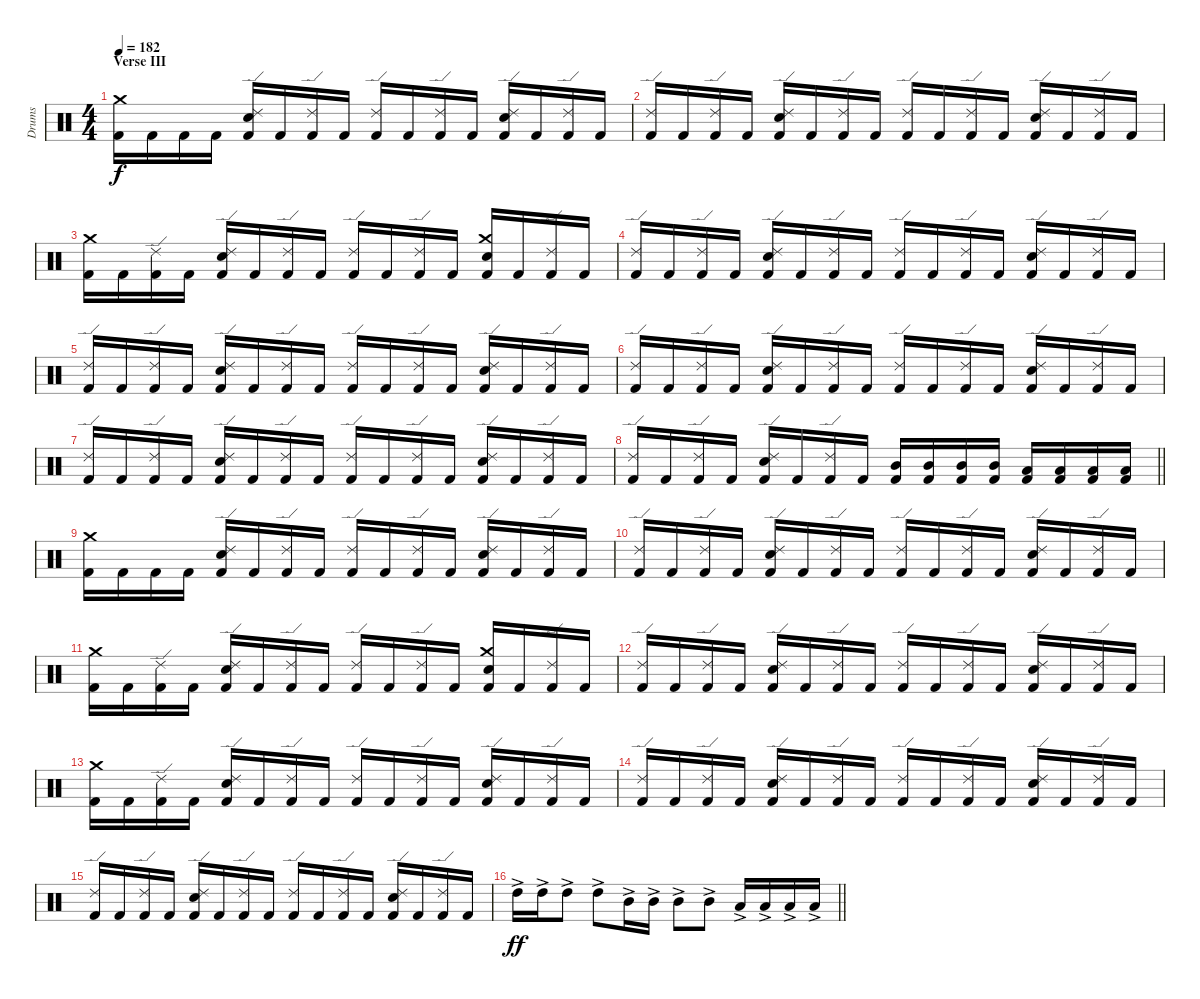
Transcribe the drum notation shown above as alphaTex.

\track ("Drums" "Drums") {instrument percussion}
\staff {score}
\articulation defaults
\ts (4 4)
\section ("" "Verse III")
\tempo 182
\clef neutral
\ks c
("Kick (hit) 2" "Crash medium (hit)").16{dy f} "Kick (hit) 2".16 "Kick (hit) 2".16 "Kick (hit) 2".16 ("Kick (hit) 2" "Snare (hit) 2" "Ride (edge) 2").16 "Kick (hit) 2".16 ("Kick (hit) 2" "Ride (edge) 2").16 "Kick (hit) 2".16 ("Kick (hit) 2" "Ride (edge) 2").16 "Kick (hit) 2".16 ("Kick (hit) 2" "Ride (edge) 2").16 "Kick (hit) 2".16 ("Kick (hit) 2" "Snare (hit) 2" "Ride (edge) 2").16 "Kick (hit) 2".16 ("Kick (hit) 2" "Ride (edge) 2").16 "Kick (hit) 2".16 |
("Kick (hit) 2" "Ride (edge) 2").16 "Kick (hit) 2".16 ("Kick (hit) 2" "Ride (edge) 2").16 "Kick (hit) 2".16 ("Kick (hit) 2" "Snare (hit) 2" "Ride (edge) 2").16 "Kick (hit) 2".16 ("Kick (hit) 2" "Ride (edge) 2").16 "Kick (hit) 2".16 ("Kick (hit) 2" "Ride (edge) 2").16 "Kick (hit) 2".16 ("Kick (hit) 2" "Ride (edge) 2").16 "Kick (hit) 2".16 ("Kick (hit) 2" "Snare (hit) 2" "Ride (edge) 2").16 "Kick (hit) 2".16 ("Kick (hit) 2" "Ride (edge) 2").16 "Kick (hit) 2".16 |
("Kick (hit) 2" "Crash medium (hit)").16 "Kick (hit) 2".16 ("Kick (hit) 2" "Ride (edge) 2").16 "Kick (hit) 2".16 ("Kick (hit) 2" "Snare (hit) 2" "Ride (edge) 2").16 "Kick (hit) 2".16 ("Kick (hit) 2" "Ride (edge) 2").16 "Kick (hit) 2".16 ("Kick (hit) 2" "Ride (edge) 2").16 "Kick (hit) 2".16 ("Kick (hit) 2" "Ride (edge) 2").16 "Kick (hit) 2".16 ("Kick (hit) 2" "Snare (hit) 2" "Crash medium (hit)").16 "Kick (hit) 2".16 ("Kick (hit) 2" "Ride (edge) 2").16 "Kick (hit) 2".16 |
("Kick (hit) 2" "Ride (edge) 2").16 "Kick (hit) 2".16 ("Kick (hit) 2" "Ride (edge) 2").16 "Kick (hit) 2".16 ("Kick (hit) 2" "Snare (hit) 2" "Ride (edge) 2").16 "Kick (hit) 2".16 ("Kick (hit) 2" "Ride (edge) 2").16 "Kick (hit) 2".16 ("Kick (hit) 2" "Ride (edge) 2").16 "Kick (hit) 2".16 ("Kick (hit) 2" "Ride (edge) 2").16 "Kick (hit) 2".16 ("Kick (hit) 2" "Snare (hit) 2" "Ride (edge) 2").16 "Kick (hit) 2".16 ("Kick (hit) 2" "Ride (edge) 2").16 "Kick (hit) 2".16 |
("Kick (hit) 2" "Ride (edge) 2").16 "Kick (hit) 2".16 ("Kick (hit) 2" "Ride (edge) 2").16 "Kick (hit) 2".16 ("Kick (hit) 2" "Snare (hit) 2" "Ride (edge) 2").16 "Kick (hit) 2".16 ("Kick (hit) 2" "Ride (edge) 2").16 "Kick (hit) 2".16 ("Kick (hit) 2" "Ride (edge) 2").16 "Kick (hit) 2".16 ("Kick (hit) 2" "Ride (edge) 2").16 "Kick (hit) 2".16 ("Kick (hit) 2" "Snare (hit) 2" "Ride (edge) 2").16 "Kick (hit) 2".16 ("Kick (hit) 2" "Ride (edge) 2").16 "Kick (hit) 2".16 |
("Kick (hit) 2" "Ride (edge) 2").16 "Kick (hit) 2".16 ("Kick (hit) 2" "Ride (edge) 2").16 "Kick (hit) 2".16 ("Kick (hit) 2" "Snare (hit) 2" "Ride (edge) 2").16 "Kick (hit) 2".16 ("Kick (hit) 2" "Ride (edge) 2").16 "Kick (hit) 2".16 ("Kick (hit) 2" "Ride (edge) 2").16 "Kick (hit) 2".16 ("Kick (hit) 2" "Ride (edge) 2").16 "Kick (hit) 2".16 ("Kick (hit) 2" "Snare (hit) 2" "Ride (edge) 2").16 "Kick (hit) 2".16 ("Kick (hit) 2" "Ride (edge) 2").16 "Kick (hit) 2".16 |
("Kick (hit) 2" "Ride (edge) 2").16 "Kick (hit) 2".16 ("Kick (hit) 2" "Ride (edge) 2").16 "Kick (hit) 2".16 ("Kick (hit) 2" "Snare (hit) 2" "Ride (edge) 2").16 "Kick (hit) 2".16 ("Kick (hit) 2" "Ride (edge) 2").16 "Kick (hit) 2".16 ("Kick (hit) 2" "Ride (edge) 2").16 "Kick (hit) 2".16 ("Kick (hit) 2" "Ride (edge) 2").16 "Kick (hit) 2".16 ("Kick (hit) 2" "Snare (hit) 2" "Ride (edge) 2").16 "Kick (hit) 2".16 ("Kick (hit) 2" "Ride (edge) 2").16 "Kick (hit) 2".16 |
\barLineRight lightlight
("Kick (hit) 2" "Ride (edge) 2").16 "Kick (hit) 2".16 ("Kick (hit) 2" "Ride (edge) 2").16 "Kick (hit) 2".16 ("Kick (hit) 2" "Snare (hit) 2" "Ride (edge) 2").16 "Kick (hit) 2".16 ("Kick (hit) 2" "Ride (edge) 2").16 "Kick (hit) 2".16 ("Kick (hit) 2" "Mid Tom (hit)").16 ("Kick (hit) 2" "Mid Tom (hit)").16 ("Kick (hit) 2" "Mid Tom (hit)").16 ("Kick (hit) 2" "Mid Tom (hit)").16 ("Kick (hit) 2" "Low Tom (hit)").16 ("Kick (hit) 2" "Low Tom (hit)").16 ("Kick (hit) 2" "Low Tom (hit)").16 ("Kick (hit) 2" "Low Tom (hit)").16 |
\section ("" "")
("Kick (hit) 2" "Crash medium (hit)").16 "Kick (hit) 2".16 "Kick (hit) 2".16 "Kick (hit) 2".16 ("Kick (hit) 2" "Snare (hit) 2" "Ride (edge) 2").16 "Kick (hit) 2".16 ("Kick (hit) 2" "Ride (edge) 2").16 "Kick (hit) 2".16 ("Kick (hit) 2" "Ride (edge) 2").16 "Kick (hit) 2".16 ("Kick (hit) 2" "Ride (edge) 2").16 "Kick (hit) 2".16 ("Kick (hit) 2" "Snare (hit) 2" "Ride (edge) 2").16 "Kick (hit) 2".16 ("Kick (hit) 2" "Ride (edge) 2").16 "Kick (hit) 2".16 |
("Kick (hit) 2" "Ride (edge) 2").16 "Kick (hit) 2".16 ("Kick (hit) 2" "Ride (edge) 2").16 "Kick (hit) 2".16 ("Kick (hit) 2" "Snare (hit) 2" "Ride (edge) 2").16 "Kick (hit) 2".16 ("Kick (hit) 2" "Ride (edge) 2").16 "Kick (hit) 2".16 ("Kick (hit) 2" "Ride (edge) 2").16 "Kick (hit) 2".16 ("Kick (hit) 2" "Ride (edge) 2").16 "Kick (hit) 2".16 ("Kick (hit) 2" "Snare (hit) 2" "Ride (edge) 2").16 "Kick (hit) 2".16 ("Kick (hit) 2" "Ride (edge) 2").16 "Kick (hit) 2".16 |
("Kick (hit) 2" "Crash medium (hit)").16 "Kick (hit) 2".16 ("Kick (hit) 2" "Ride (edge) 2").16 "Kick (hit) 2".16 ("Kick (hit) 2" "Snare (hit) 2" "Ride (edge) 2").16 "Kick (hit) 2".16 ("Kick (hit) 2" "Ride (edge) 2").16 "Kick (hit) 2".16 ("Kick (hit) 2" "Ride (edge) 2").16 "Kick (hit) 2".16 ("Kick (hit) 2" "Ride (edge) 2").16 "Kick (hit) 2".16 ("Kick (hit) 2" "Snare (hit) 2" "Crash medium (hit)").16 "Kick (hit) 2".16 ("Kick (hit) 2" "Ride (edge) 2").16 "Kick (hit) 2".16 |
("Kick (hit) 2" "Ride (edge) 2").16 "Kick (hit) 2".16 ("Kick (hit) 2" "Ride (edge) 2").16 "Kick (hit) 2".16 ("Kick (hit) 2" "Snare (hit) 2" "Ride (edge) 2").16 "Kick (hit) 2".16 ("Kick (hit) 2" "Ride (edge) 2").16 "Kick (hit) 2".16 ("Kick (hit) 2" "Ride (edge) 2").16 "Kick (hit) 2".16 ("Kick (hit) 2" "Ride (edge) 2").16 "Kick (hit) 2".16 ("Kick (hit) 2" "Snare (hit) 2" "Ride (edge) 2").16 "Kick (hit) 2".16 ("Kick (hit) 2" "Ride (edge) 2").16 "Kick (hit) 2".16 |
("Kick (hit) 2" "Crash medium (hit)").16 "Kick (hit) 2".16 ("Kick (hit) 2" "Ride (edge) 2").16 "Kick (hit) 2".16 ("Kick (hit) 2" "Snare (hit) 2" "Ride (edge) 2").16 "Kick (hit) 2".16 ("Kick (hit) 2" "Ride (edge) 2").16 "Kick (hit) 2".16 ("Kick (hit) 2" "Ride (edge) 2").16 "Kick (hit) 2".16 ("Kick (hit) 2" "Ride (edge) 2").16 "Kick (hit) 2".16 ("Kick (hit) 2" "Snare (hit) 2" "Ride (edge) 2").16 "Kick (hit) 2".16 ("Kick (hit) 2" "Ride (edge) 2").16 "Kick (hit) 2".16 |
("Kick (hit) 2" "Ride (edge) 2").16 "Kick (hit) 2".16 ("Kick (hit) 2" "Ride (edge) 2").16 "Kick (hit) 2".16 ("Kick (hit) 2" "Snare (hit) 2" "Ride (edge) 2").16 "Kick (hit) 2".16 ("Kick (hit) 2" "Ride (edge) 2").16 "Kick (hit) 2".16 ("Kick (hit) 2" "Ride (edge) 2").16 "Kick (hit) 2".16 ("Kick (hit) 2" "Ride (edge) 2").16 "Kick (hit) 2".16 ("Kick (hit) 2" "Snare (hit) 2" "Ride (edge) 2").16 "Kick (hit) 2".16 ("Kick (hit) 2" "Ride (edge) 2").16 "Kick (hit) 2".16 |
("Kick (hit) 2" "Ride (edge) 2").16 "Kick (hit) 2".16 ("Kick (hit) 2" "Ride (edge) 2").16 "Kick (hit) 2".16 ("Kick (hit) 2" "Snare (hit) 2" "Ride (edge) 2").16 "Kick (hit) 2".16 ("Kick (hit) 2" "Ride (edge) 2").16 "Kick (hit) 2".16 ("Kick (hit) 2" "Ride (edge) 2").16 "Kick (hit) 2".16 ("Kick (hit) 2" "Ride (edge) 2").16 "Kick (hit) 2".16 ("Kick (hit) 2" "Snare (hit) 2" "Ride (edge) 2").16 "Kick (hit) 2".16 ("Kick (hit) 2" "Ride (edge) 2").16 "Kick (hit) 2".16 |
\barLineRight lightlight "High Tom (hit)"{ac}.16{dy ff} "High Tom (hit)"{ac}.16 "High Tom (hit)"{ac}.8 "High Tom (hit)"{ac}.8 "Mid Tom (hit)"{ac}.16 "Mid Tom (hit)"{ac}.16 "Mid Tom (hit)"{ac}.8 "Mid Tom (hit)"{ac}.8 "Low Tom (hit)"{ac}.16 "Low Tom (hit)"{ac}.16 "Low Tom (hit)"{ac}.16 "Low Tom (hit)"{ac}.16
